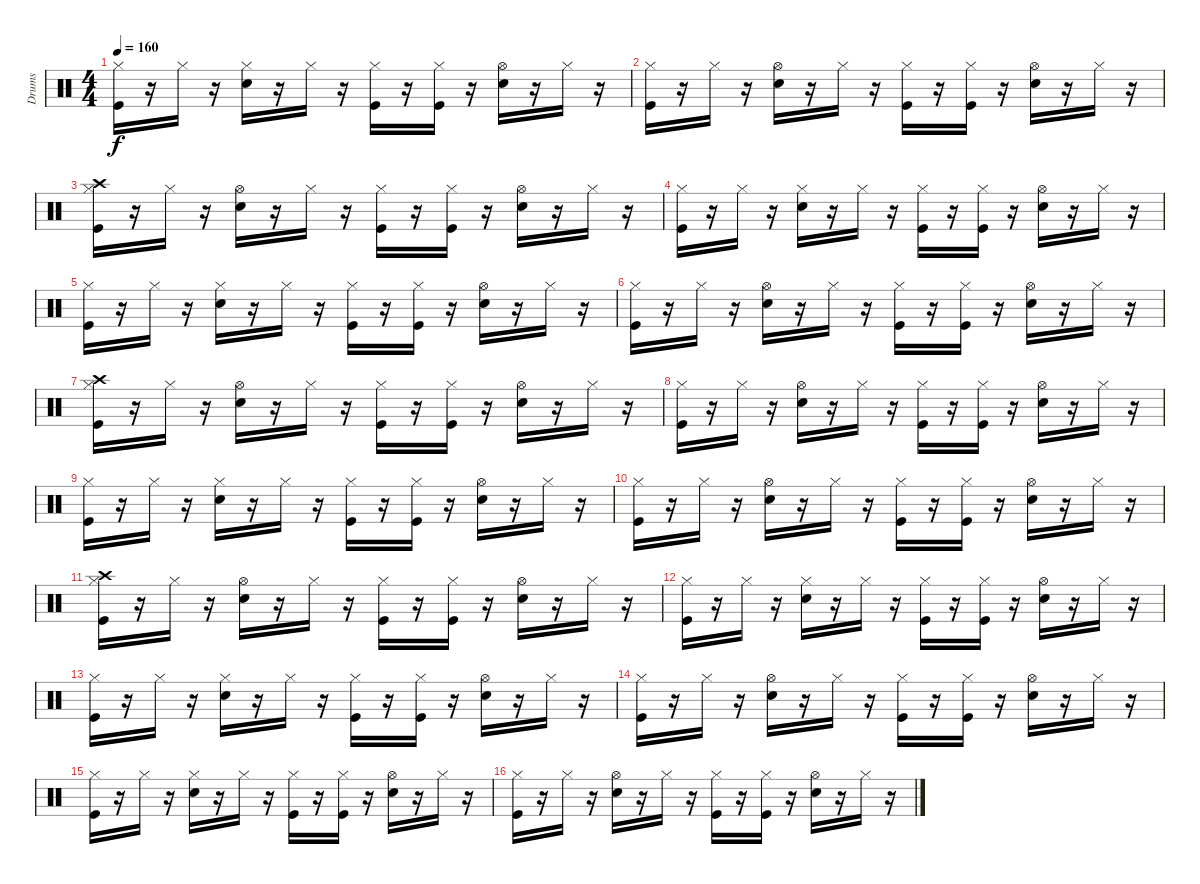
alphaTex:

\track ("Drums" "Drums") {instrument percussion}
\staff {score}
\articulation defaults
\ts (4 4)
\tempo 160
\clef neutral
\ks c
("Hi-Hat (closed)" "Kick (hit)").16{dy f} r.16 "Hi-Hat (closed)".16 r.16 ("Hi-Hat (closed)" "Snare (hit) 2").16 r.16 "Hi-Hat (closed)".16 r.16 ("Hi-Hat (closed)" "Kick (hit)").16 r.16 ("Kick (hit)" "Hi-Hat (closed)").16 r.16 ("Hi-Hat (open)" "Snare (hit) 2").16 r.16 "Hi-Hat (closed)".16 r.16 |
("Hi-Hat (closed)" "Kick (hit)").16 r.16 "Hi-Hat (closed)".16 r.16 ("Hi-Hat (open)" "Snare (hit) 2").16 r.16 "Hi-Hat (closed)".16 r.16 ("Hi-Hat (closed)" "Kick (hit)").16 r.16 ("Kick (hit)" "Hi-Hat (closed)").16 r.16 ("Hi-Hat (open)" "Snare (hit) 2").16 r.16 "Hi-Hat (closed)".16 r.16 |
("Crash high (hit)" "Hi-Hat (closed)" "Kick (hit)").16 r.16 "Hi-Hat (closed)".16 r.16 ("Hi-Hat (open)" "Snare (hit) 2").16 r.16 "Hi-Hat (closed)".16 r.16 ("Hi-Hat (closed)" "Kick (hit)").16 r.16 ("Kick (hit)" "Hi-Hat (closed)").16 r.16 ("Hi-Hat (open)" "Snare (hit) 2").16 r.16 "Hi-Hat (closed)".16 r.16 |
("Hi-Hat (closed)" "Kick (hit)").16 r.16 "Hi-Hat (closed)".16 r.16 ("Hi-Hat (closed)" "Snare (hit) 2").16 r.16 "Hi-Hat (closed)".16 r.16 ("Hi-Hat (closed)" "Kick (hit)").16 r.16 ("Kick (hit)" "Hi-Hat (closed)").16 r.16 ("Hi-Hat (open)" "Snare (hit) 2").16 r.16 "Hi-Hat (closed)".16 r.16 |
("Hi-Hat (closed)" "Kick (hit)").16 r.16 "Hi-Hat (closed)".16 r.16 ("Hi-Hat (closed)" "Snare (hit) 2").16 r.16 "Hi-Hat (closed)".16 r.16 ("Hi-Hat (closed)" "Kick (hit)").16 r.16 ("Kick (hit)" "Hi-Hat (closed)").16 r.16 ("Hi-Hat (open)" "Snare (hit) 2").16 r.16 "Hi-Hat (closed)".16 r.16 |
("Hi-Hat (closed)" "Kick (hit)").16 r.16 "Hi-Hat (closed)".16 r.16 ("Hi-Hat (open)" "Snare (hit) 2").16 r.16 "Hi-Hat (closed)".16 r.16 ("Hi-Hat (closed)" "Kick (hit)").16 r.16 ("Kick (hit)" "Hi-Hat (closed)").16 r.16 ("Hi-Hat (open)" "Snare (hit) 2").16 r.16 "Hi-Hat (closed)".16 r.16 |
("Crash high (hit)" "Hi-Hat (closed)" "Kick (hit)").16 r.16 "Hi-Hat (closed)".16 r.16 ("Hi-Hat (open)" "Snare (hit) 2").16 r.16 "Hi-Hat (closed)".16 r.16 ("Hi-Hat (closed)" "Kick (hit)").16 r.16 ("Kick (hit)" "Hi-Hat (closed)").16 r.16 ("Hi-Hat (open)" "Snare (hit) 2").16 r.16 "Hi-Hat (closed)".16 r.16 |
("Hi-Hat (closed)" "Kick (hit)").16 r.16 "Hi-Hat (closed)".16 r.16 ("Hi-Hat (open)" "Snare (hit) 2").16 r.16 "Hi-Hat (closed)".16 r.16 ("Hi-Hat (closed)" "Kick (hit)").16 r.16 ("Kick (hit)" "Hi-Hat (closed)").16 r.16 ("Hi-Hat (open)" "Snare (hit) 2").16 r.16 "Hi-Hat (closed)".16 r.16 |
("Hi-Hat (closed)" "Kick (hit)").16 r.16 "Hi-Hat (closed)".16 r.16 ("Hi-Hat (closed)" "Snare (hit) 2").16 r.16 "Hi-Hat (closed)".16 r.16 ("Hi-Hat (closed)" "Kick (hit)").16 r.16 ("Kick (hit)" "Hi-Hat (closed)").16 r.16 ("Hi-Hat (open)" "Snare (hit) 2").16 r.16 "Hi-Hat (closed)".16 r.16 |
("Hi-Hat (closed)" "Kick (hit)").16 r.16 "Hi-Hat (closed)".16 r.16 ("Hi-Hat (open)" "Snare (hit) 2").16 r.16 "Hi-Hat (closed)".16 r.16 ("Hi-Hat (closed)" "Kick (hit)").16 r.16 ("Kick (hit)" "Hi-Hat (closed)").16 r.16 ("Hi-Hat (open)" "Snare (hit) 2").16 r.16 "Hi-Hat (closed)".16 r.16 |
("Crash high (hit)" "Hi-Hat (closed)" "Kick (hit)").16 r.16 "Hi-Hat (closed)".16 r.16 ("Hi-Hat (open)" "Snare (hit) 2").16 r.16 "Hi-Hat (closed)".16 r.16 ("Hi-Hat (closed)" "Kick (hit)").16 r.16 ("Kick (hit)" "Hi-Hat (closed)").16 r.16 ("Hi-Hat (open)" "Snare (hit) 2").16 r.16 "Hi-Hat (closed)".16 r.16 |
("Hi-Hat (closed)" "Kick (hit)").16 r.16 "Hi-Hat (closed)".16 r.16 ("Hi-Hat (closed)" "Snare (hit) 2").16 r.16 "Hi-Hat (closed)".16 r.16 ("Hi-Hat (closed)" "Kick (hit)").16 r.16 ("Kick (hit)" "Hi-Hat (closed)").16 r.16 ("Hi-Hat (open)" "Snare (hit) 2").16 r.16 "Hi-Hat (closed)".16 r.16 |
("Hi-Hat (closed)" "Kick (hit)").16 r.16 "Hi-Hat (closed)".16 r.16 ("Hi-Hat (closed)" "Snare (hit) 2").16 r.16 "Hi-Hat (closed)".16 r.16 ("Hi-Hat (closed)" "Kick (hit)").16 r.16 ("Kick (hit)" "Hi-Hat (closed)").16 r.16 ("Hi-Hat (open)" "Snare (hit) 2").16 r.16 "Hi-Hat (closed)".16 r.16 |
("Hi-Hat (closed)" "Kick (hit)").16 r.16 "Hi-Hat (closed)".16 r.16 ("Hi-Hat (open)" "Snare (hit) 2").16 r.16 "Hi-Hat (closed)".16 r.16 ("Hi-Hat (closed)" "Kick (hit)").16 r.16 ("Kick (hit)" "Hi-Hat (closed)").16 r.16 ("Hi-Hat (open)" "Snare (hit) 2").16 r.16 "Hi-Hat (closed)".16 r.16 |
("Hi-Hat (closed)" "Kick (hit)").16 r.16 "Hi-Hat (closed)".16 r.16 ("Hi-Hat (closed)" "Snare (hit) 2").16 r.16 "Hi-Hat (closed)".16 r.16 ("Hi-Hat (closed)" "Kick (hit)").16 r.16 ("Kick (hit)" "Hi-Hat (closed)").16 r.16 ("Hi-Hat (open)" "Snare (hit) 2").16 r.16 "Hi-Hat (closed)".16 r.16 |
("Hi-Hat (closed)" "Kick (hit)").16 r.16 "Hi-Hat (closed)".16 r.16 ("Hi-Hat (open)" "Snare (hit) 2").16 r.16 "Hi-Hat (closed)".16 r.16 ("Hi-Hat (closed)" "Kick (hit)").16 r.16 ("Kick (hit)" "Hi-Hat (closed)").16 r.16 ("Hi-Hat (open)" "Snare (hit) 2").16 r.16 "Hi-Hat (closed)".16 r.16
